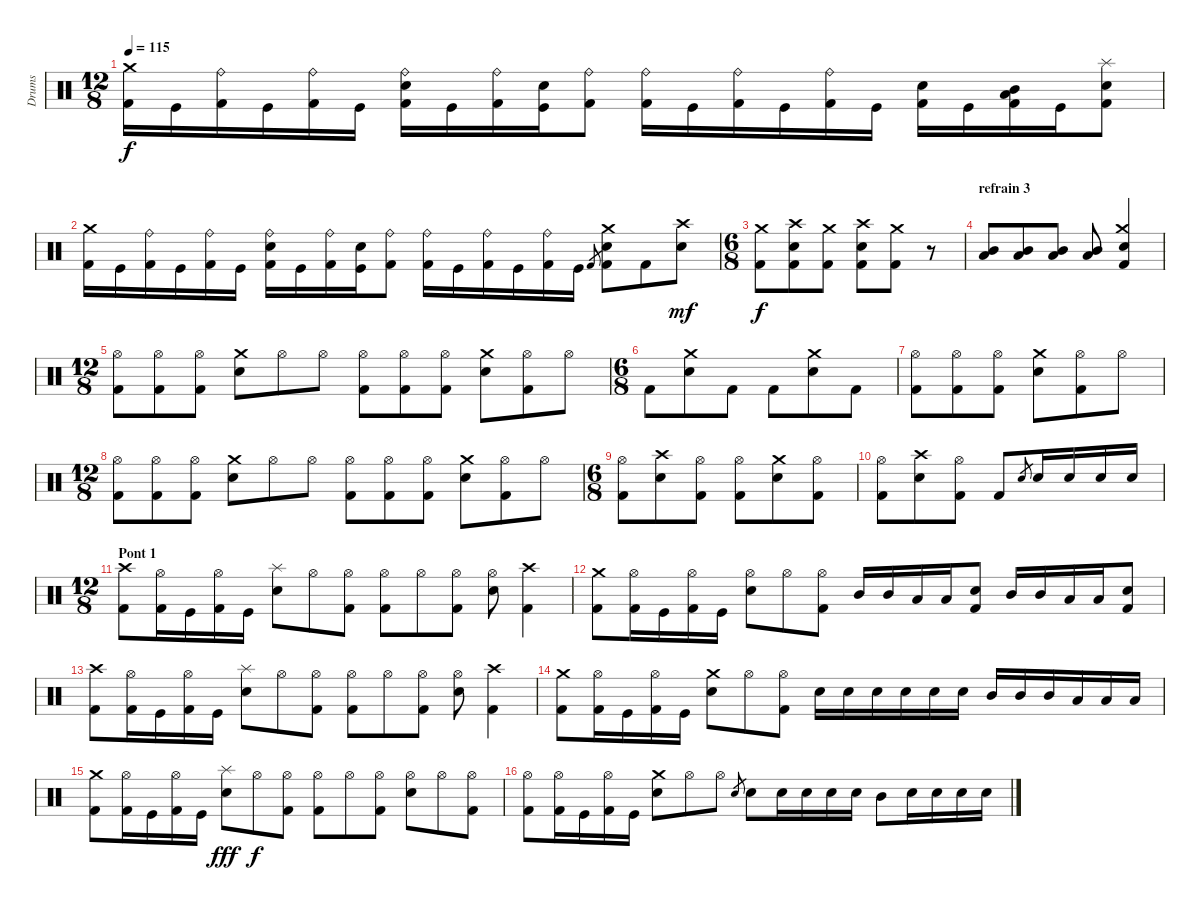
\track ("Drums" "Drums") {instrument percussion}
\staff {score}
\articulation defaults
\ts (12 8)
\tempo 115
\clef neutral
\ks c
("Kick (hit) 2" "Crash medium (hit)").16{dy f} "Kick (hit)".16 ("Kick (hit) 2" "Ride (bell)").16 "Kick (hit)".16 ("Kick (hit) 2" "Ride (bell)").16 "Kick (hit)".16 ("Kick (hit) 2" "Electric Snare (hit)" "Ride (bell)").16 "Kick (hit)".16 ("Kick (hit) 2" "Ride (bell)").16 ("Kick (hit)" "Electric Snare (hit)").16 ("Kick (hit) 2" "Ride (bell)").8 ("Kick (hit) 2" "Ride (bell)").16 "Kick (hit)".16 ("Kick (hit) 2" "Ride (bell)").16 "Kick (hit)".16 ("Kick (hit) 2" "Ride (bell)").16 "Kick (hit)".16 ("Kick (hit) 2" "Electric Snare (hit)").16 "Kick (hit)".16 ("Kick (hit) 2" "Low Tom (hit)" "Mid Tom (hit)").16 "Kick (hit)".16 ("Kick (hit) 2" "Electric Snare (hit)" "Splash (hit)").8 |
("Kick (hit) 2" "Crash medium (hit)").16 "Kick (hit)".16 ("Kick (hit) 2" "Ride (bell)").16 "Kick (hit)".16 ("Kick (hit) 2" "Ride (bell)").16 "Kick (hit)".16 ("Kick (hit) 2" "Electric Snare (hit)" "Ride (bell)").16 "Kick (hit)".16 ("Kick (hit) 2" "Ride (bell)").16 ("Kick (hit)" "Electric Snare (hit)").16 ("Kick (hit) 2" "Ride (bell)").8 ("Kick (hit) 2" "Ride (bell)").16 "Kick (hit)".16 ("Kick (hit) 2" "Ride (bell)").16 "Kick (hit)".16 ("Kick (hit) 2" "Ride (bell)").16 "Kick (hit)".16 "Kick (hit) 2".8{gr} ("Kick (hit) 2" "Electric Snare (hit)" "Crash medium (hit)").8 "Kick (hit) 2".8 ("Electric Snare (hit)" "Crash high (hit)").8{dy mf} |
\ts (6 8)
("Kick (hit) 2" "Crash medium (hit)").8{dy f} ("Kick (hit) 2" "Electric Snare (hit)" "Crash high (hit)").8 ("Kick (hit) 2" "Crash medium (hit)").8 ("Kick (hit) 2" "Electric Snare (hit)" "Crash high (hit)").8 ("Kick (hit) 2" "Crash medium (hit)").8 r.8 |
\section ("" "refrain 3")
("Mid Tom (hit)" "Low Floor Tom (hit)").8 ("Mid Tom (hit)" "Low Floor Tom (hit)").8 ("Mid Tom (hit)" "Low Floor Tom (hit)").8 ("Mid Tom (hit)" "Low Floor Tom (hit)").8 ("Kick (hit) 2" "Electric Snare (hit)" "Crash medium (hit)").4 |
\ts (12 8)
("Kick (hit) 2" "Hi-Hat (open)").8 ("Kick (hit) 2" "Hi-Hat (open)").8 ("Kick (hit) 2" "Hi-Hat (open)").8 ("Electric Snare (hit)" "Crash medium (hit)").8 "Hi-Hat (open)".8 "Hi-Hat (open)".8 ("Kick (hit) 2" "Hi-Hat (open)").8 ("Kick (hit) 2" "Hi-Hat (open)").8 ("Kick (hit) 2" "Hi-Hat (open)").8 ("Electric Snare (hit)" "Crash medium (hit)").8 ("Kick (hit) 2" "Hi-Hat (open)").8 "Hi-Hat (open)".8 |
\ts (6 8)
"Kick (hit) 2".8 ("Electric Snare (hit)" "Crash medium (hit)").8 "Kick (hit) 2".8 "Kick (hit) 2".8 ("Electric Snare (hit)" "Crash medium (hit)").8 "Kick (hit) 2".8 |
("Kick (hit) 2" "Hi-Hat (open)").8 ("Kick (hit) 2" "Hi-Hat (open)").8 ("Kick (hit) 2" "Hi-Hat (open)").8 ("Electric Snare (hit)" "Crash medium (hit)").8 ("Kick (hit) 2" "Hi-Hat (open)").8 "Hi-Hat (open)".8 |
\ts (12 8)
("Kick (hit) 2" "Hi-Hat (open)").8 ("Kick (hit) 2" "Hi-Hat (open)").8 ("Kick (hit) 2" "Hi-Hat (open)").8 ("Electric Snare (hit)" "Crash medium (hit)").8 "Hi-Hat (open)".8 "Hi-Hat (open)".8 ("Kick (hit) 2" "Hi-Hat (open)").8 ("Kick (hit) 2" "Hi-Hat (open)").8 ("Kick (hit) 2" "Hi-Hat (open)").8 ("Electric Snare (hit)" "Crash medium (hit)").8 ("Kick (hit) 2" "Hi-Hat (open)").8 "Hi-Hat (open)".8 |
\ts (6 8)
("Kick (hit) 2" "Hi-Hat (open)").8 ("Electric Snare (hit)" "Crash high (hit)").8 ("Kick (hit) 2" "Hi-Hat (open)").8 ("Kick (hit) 2" "Hi-Hat (open)").8 ("Electric Snare (hit)" "Crash medium (hit)").8 ("Kick (hit) 2" "Hi-Hat (open)").8 |
("Kick (hit) 2" "Hi-Hat (open)").8 ("Electric Snare (hit)" "Crash high (hit)").8 ("Kick (hit) 2" "Hi-Hat (open)").8 "Kick (hit) 2".8 "Electric Snare (hit)".8{gr} "Electric Snare (hit)".16 "Electric Snare (hit)".16 "Electric Snare (hit)".16 "Electric Snare (hit)".16 |
\ts (12 8)
\section ("" "Pont 1")
("Kick (hit) 2" "Crash high (hit)").8 ("Kick (hit) 2" "Hi-Hat (open)").16 "Kick (hit)".16 ("Kick (hit) 2" "Hi-Hat (open)").16 "Kick (hit)".16 ("Electric Snare (hit)" "Splash (hit)").8 "Hi-Hat (open)".8 ("Kick (hit) 2" "Hi-Hat (open)").8 ("Kick (hit) 2" "Hi-Hat (open)").8 "Hi-Hat (open)".8 ("Kick (hit) 2" "Hi-Hat (open)").8 ("Electric Snare (hit)" "Hi-Hat (open)").8 ("Kick (hit) 2" "Crash high (hit)").4 |
("Kick (hit) 2" "Crash medium (hit)").8 ("Kick (hit) 2" "Hi-Hat (open)").16 "Kick (hit)".16 ("Kick (hit) 2" "Hi-Hat (open)").16 "Kick (hit)".16 ("Electric Snare (hit)" "Hi-Hat (open)").8 "Hi-Hat (open)".8 ("Kick (hit) 2" "Hi-Hat (open)").8 "Mid Tom (hit)".16 "Mid Tom (hit)".16 "Low Tom (hit)".16 "Low Tom (hit)".16 ("Kick (hit) 2" "Electric Snare (hit)").8 "Mid Tom (hit)".16 "Mid Tom (hit)".16 "Low Tom (hit)".16 "Low Tom (hit)".16 ("Kick (hit) 2" "Electric Snare (hit)").8 |
("Kick (hit) 2" "Crash high (hit)").8 ("Kick (hit) 2" "Hi-Hat (open)").16 "Kick (hit)".16 ("Kick (hit) 2" "Hi-Hat (open)").16 "Kick (hit)".16 ("Electric Snare (hit)" "Splash (hit)").8 "Hi-Hat (open)".8 ("Kick (hit) 2" "Hi-Hat (open)").8 ("Kick (hit) 2" "Hi-Hat (open)").8 "Hi-Hat (open)".8 ("Kick (hit) 2" "Hi-Hat (open)").8 ("Electric Snare (hit)" "Hi-Hat (open)").8 ("Kick (hit) 2" "Crash high (hit)").4 |
("Kick (hit) 2" "Crash medium (hit)").8 ("Kick (hit) 2" "Hi-Hat (open)").16 "Kick (hit)".16 ("Kick (hit) 2" "Hi-Hat (open)").16 "Kick (hit)".16 ("Electric Snare (hit)" "Crash medium (hit)").8 "Hi-Hat (open)".8 ("Kick (hit) 2" "Hi-Hat (open)").8 "Electric Snare (hit)".16 "Electric Snare (hit)".16 "Electric Snare (hit)".16 "Electric Snare (hit)".16 "Electric Snare (hit)".16 "Electric Snare (hit)".16 "Mid Tom (hit)".16 "Mid Tom (hit)".16 "Mid Tom (hit)".16 "Low Tom (hit)".16 "Low Tom (hit)".16 "Low Tom (hit)".16 |
("Kick (hit) 2" "Crash medium (hit)").8 ("Kick (hit) 2" "Hi-Hat (open)").16 "Kick (hit)".16 ("Kick (hit) 2" "Hi-Hat (open)").16 "Kick (hit)".16 ("Electric Snare (hit)" "Splash (hit)").8{dy fff} "Hi-Hat (open)".8{dy f} ("Kick (hit) 2" "Hi-Hat (open)").8 ("Kick (hit) 2" "Hi-Hat (open)").8 "Hi-Hat (open)".8 ("Kick (hit) 2" "Hi-Hat (open)").8 ("Electric Snare (hit)" "Hi-Hat (open)").8 "Hi-Hat (open)".8 ("Kick (hit) 2" "Hi-Hat (open)").8 |
("Kick (hit) 2" "Hi-Hat (open)").8 ("Kick (hit) 2" "Hi-Hat (open)").16 "Kick (hit)".16 ("Kick (hit) 2" "Hi-Hat (open)").16 "Kick (hit)".16 ("Electric Snare (hit)" "Crash medium (hit)").8 "Hi-Hat (open)".8 "Hi-Hat (open)".8 "Electric Snare (hit)".8{gr} "Electric Snare (hit)".8 "Electric Snare (hit)".16 "Electric Snare (hit)".16 "Electric Snare (hit)".16 "Electric Snare (hit)".16 "Mid Tom (hit)".8 "Electric Snare (hit)".16 "Electric Snare (hit)".16 "Electric Snare (hit)".16 "Electric Snare (hit)".16
